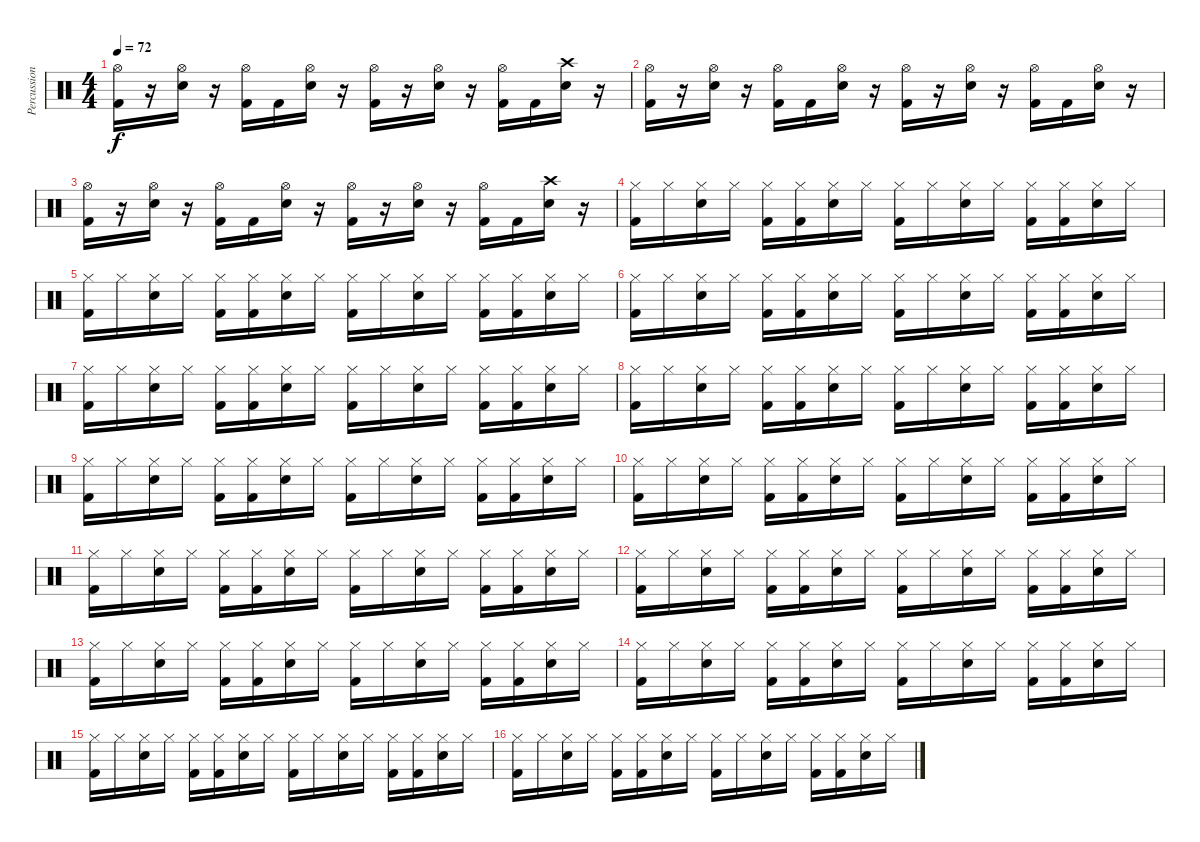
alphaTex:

\track ("Percussion" "Percussion") {instrument percussion}
\staff {score}
\articulation defaults
\ts (4 4)
\tempo 72
\clef neutral
\ks c
("Hi-Hat (open)" "Kick (hit) 2").16{dy f} r.16 ("Hi-Hat (open)" "Snare (hit) 2").16 r.16 ("Hi-Hat (open)" "Kick (hit) 2").16 "Kick (hit) 2".16 ("Hi-Hat (open)" "Snare (hit) 2").16 r.16 ("Hi-Hat (open)" "Kick (hit) 2").16 r.16 ("Hi-Hat (open)" "Snare (hit) 2").16 r.16 ("Hi-Hat (open)" "Kick (hit) 2").16 "Kick (hit) 2".16 ("Crash high (hit)" "Snare (hit) 2").16 r.16 |
("Hi-Hat (open)" "Kick (hit) 2").16 r.16 ("Hi-Hat (open)" "Snare (hit) 2").16 r.16 ("Hi-Hat (open)" "Kick (hit) 2").16 "Kick (hit) 2".16 ("Hi-Hat (open)" "Snare (hit) 2").16 r.16 ("Hi-Hat (open)" "Kick (hit) 2").16 r.16 ("Hi-Hat (open)" "Snare (hit) 2").16 r.16 ("Hi-Hat (open)" "Kick (hit) 2").16 "Kick (hit) 2".16 ("Hi-Hat (open)" "Snare (hit) 2").16 r.16 |
("Hi-Hat (open)" "Kick (hit) 2").16 r.16 ("Hi-Hat (open)" "Snare (hit) 2").16 r.16 ("Hi-Hat (open)" "Kick (hit) 2").16 "Kick (hit) 2".16 ("Hi-Hat (open)" "Snare (hit) 2").16 r.16 ("Hi-Hat (open)" "Kick (hit) 2").16 r.16 ("Hi-Hat (open)" "Snare (hit) 2").16 r.16 ("Hi-Hat (open)" "Kick (hit) 2").16 "Kick (hit) 2".16 ("Crash high (hit)" "Snare (hit) 2").16 r.16 |
("Hi-Hat (closed)" "Kick (hit) 2").16 "Hi-Hat (closed)".16 ("Hi-Hat (closed)" "Snare (hit) 2").16 "Hi-Hat (closed)".16 ("Hi-Hat (closed)" "Kick (hit) 2").16 ("Hi-Hat (closed)" "Kick (hit) 2").16 ("Hi-Hat (closed)" "Snare (hit) 2").16 "Hi-Hat (closed)".16 ("Hi-Hat (closed)" "Kick (hit) 2").16 "Hi-Hat (closed)".16 ("Hi-Hat (closed)" "Snare (hit) 2").16 "Hi-Hat (closed)".16 ("Hi-Hat (closed)" "Kick (hit) 2").16 ("Hi-Hat (closed)" "Kick (hit) 2").16 ("Hi-Hat (closed)" "Snare (hit) 2").16 "Hi-Hat (closed)".16 |
("Hi-Hat (closed)" "Kick (hit) 2").16 "Hi-Hat (closed)".16 ("Hi-Hat (closed)" "Snare (hit) 2").16 "Hi-Hat (closed)".16 ("Hi-Hat (closed)" "Kick (hit) 2").16 ("Hi-Hat (closed)" "Kick (hit) 2").16 ("Hi-Hat (closed)" "Snare (hit) 2").16 "Hi-Hat (closed)".16 ("Hi-Hat (closed)" "Kick (hit) 2").16 "Hi-Hat (closed)".16 ("Hi-Hat (closed)" "Snare (hit) 2").16 "Hi-Hat (closed)".16 ("Hi-Hat (closed)" "Kick (hit) 2").16 ("Hi-Hat (closed)" "Kick (hit) 2").16 ("Hi-Hat (closed)" "Snare (hit) 2").16 "Hi-Hat (closed)".16 |
("Hi-Hat (closed)" "Kick (hit) 2").16 "Hi-Hat (closed)".16 ("Hi-Hat (closed)" "Snare (hit) 2").16 "Hi-Hat (closed)".16 ("Hi-Hat (closed)" "Kick (hit) 2").16 ("Hi-Hat (closed)" "Kick (hit) 2").16 ("Hi-Hat (closed)" "Snare (hit) 2").16 "Hi-Hat (closed)".16 ("Hi-Hat (closed)" "Kick (hit) 2").16 "Hi-Hat (closed)".16 ("Hi-Hat (closed)" "Snare (hit) 2").16 "Hi-Hat (closed)".16 ("Hi-Hat (closed)" "Kick (hit) 2").16 ("Hi-Hat (closed)" "Kick (hit) 2").16 ("Hi-Hat (closed)" "Snare (hit) 2").16 "Hi-Hat (closed)".16 |
("Hi-Hat (closed)" "Kick (hit) 2").16 "Hi-Hat (closed)".16 ("Hi-Hat (closed)" "Snare (hit) 2").16 "Hi-Hat (closed)".16 ("Hi-Hat (closed)" "Kick (hit) 2").16 ("Hi-Hat (closed)" "Kick (hit) 2").16 ("Hi-Hat (closed)" "Snare (hit) 2").16 "Hi-Hat (closed)".16 ("Hi-Hat (closed)" "Kick (hit) 2").16 "Hi-Hat (closed)".16 ("Hi-Hat (closed)" "Snare (hit) 2").16 "Hi-Hat (closed)".16 ("Hi-Hat (closed)" "Kick (hit) 2").16 ("Hi-Hat (closed)" "Kick (hit) 2").16 ("Hi-Hat (closed)" "Snare (hit) 2").16 "Hi-Hat (closed)".16 |
("Hi-Hat (closed)" "Kick (hit) 2").16 "Hi-Hat (closed)".16 ("Hi-Hat (closed)" "Snare (hit) 2").16 "Hi-Hat (closed)".16 ("Hi-Hat (closed)" "Kick (hit) 2").16 ("Hi-Hat (closed)" "Kick (hit) 2").16 ("Hi-Hat (closed)" "Snare (hit) 2").16 "Hi-Hat (closed)".16 ("Hi-Hat (closed)" "Kick (hit) 2").16 "Hi-Hat (closed)".16 ("Hi-Hat (closed)" "Snare (hit) 2").16 "Hi-Hat (closed)".16 ("Hi-Hat (closed)" "Kick (hit) 2").16 ("Hi-Hat (closed)" "Kick (hit) 2").16 ("Hi-Hat (closed)" "Snare (hit) 2").16 "Hi-Hat (closed)".16 |
("Hi-Hat (closed)" "Kick (hit) 2").16 "Hi-Hat (closed)".16 ("Hi-Hat (closed)" "Snare (hit) 2").16 "Hi-Hat (closed)".16 ("Hi-Hat (closed)" "Kick (hit) 2").16 ("Hi-Hat (closed)" "Kick (hit) 2").16 ("Hi-Hat (closed)" "Snare (hit) 2").16 "Hi-Hat (closed)".16 ("Hi-Hat (closed)" "Kick (hit) 2").16 "Hi-Hat (closed)".16 ("Hi-Hat (closed)" "Snare (hit) 2").16 "Hi-Hat (closed)".16 ("Hi-Hat (closed)" "Kick (hit) 2").16 ("Hi-Hat (closed)" "Kick (hit) 2").16 ("Hi-Hat (closed)" "Snare (hit) 2").16 "Hi-Hat (closed)".16 |
("Hi-Hat (closed)" "Kick (hit) 2").16 "Hi-Hat (closed)".16 ("Hi-Hat (closed)" "Snare (hit) 2").16 "Hi-Hat (closed)".16 ("Hi-Hat (closed)" "Kick (hit) 2").16 ("Hi-Hat (closed)" "Kick (hit) 2").16 ("Hi-Hat (closed)" "Snare (hit) 2").16 "Hi-Hat (closed)".16 ("Hi-Hat (closed)" "Kick (hit) 2").16 "Hi-Hat (closed)".16 ("Hi-Hat (closed)" "Snare (hit) 2").16 "Hi-Hat (closed)".16 ("Hi-Hat (closed)" "Kick (hit) 2").16 ("Hi-Hat (closed)" "Kick (hit) 2").16 ("Hi-Hat (closed)" "Snare (hit) 2").16 "Hi-Hat (closed)".16 |
("Hi-Hat (closed)" "Kick (hit) 2").16 "Hi-Hat (closed)".16 ("Hi-Hat (closed)" "Snare (hit) 2").16 "Hi-Hat (closed)".16 ("Hi-Hat (closed)" "Kick (hit) 2").16 ("Hi-Hat (closed)" "Kick (hit) 2").16 ("Hi-Hat (closed)" "Snare (hit) 2").16 "Hi-Hat (closed)".16 ("Hi-Hat (closed)" "Kick (hit) 2").16 "Hi-Hat (closed)".16 ("Hi-Hat (closed)" "Snare (hit) 2").16 "Hi-Hat (closed)".16 ("Hi-Hat (closed)" "Kick (hit) 2").16 ("Hi-Hat (closed)" "Kick (hit) 2").16 ("Hi-Hat (closed)" "Snare (hit) 2").16 "Hi-Hat (closed)".16 |
("Hi-Hat (closed)" "Kick (hit) 2").16 "Hi-Hat (closed)".16 ("Hi-Hat (closed)" "Snare (hit) 2").16 "Hi-Hat (closed)".16 ("Hi-Hat (closed)" "Kick (hit) 2").16 ("Hi-Hat (closed)" "Kick (hit) 2").16 ("Hi-Hat (closed)" "Snare (hit) 2").16 "Hi-Hat (closed)".16 ("Hi-Hat (closed)" "Kick (hit) 2").16 "Hi-Hat (closed)".16 ("Hi-Hat (closed)" "Snare (hit) 2").16 "Hi-Hat (closed)".16 ("Hi-Hat (closed)" "Kick (hit) 2").16 ("Hi-Hat (closed)" "Kick (hit) 2").16 ("Hi-Hat (closed)" "Snare (hit) 2").16 "Hi-Hat (closed)".16 |
("Hi-Hat (closed)" "Kick (hit) 2").16 "Hi-Hat (closed)".16 ("Hi-Hat (closed)" "Snare (hit) 2").16 "Hi-Hat (closed)".16 ("Hi-Hat (closed)" "Kick (hit) 2").16 ("Hi-Hat (closed)" "Kick (hit) 2").16 ("Hi-Hat (closed)" "Snare (hit) 2").16 "Hi-Hat (closed)".16 ("Hi-Hat (closed)" "Kick (hit) 2").16 "Hi-Hat (closed)".16 ("Hi-Hat (closed)" "Snare (hit) 2").16 "Hi-Hat (closed)".16 ("Hi-Hat (closed)" "Kick (hit) 2").16 ("Hi-Hat (closed)" "Kick (hit) 2").16 ("Hi-Hat (closed)" "Snare (hit) 2").16 "Hi-Hat (closed)".16 |
("Hi-Hat (closed)" "Kick (hit) 2").16 "Hi-Hat (closed)".16 ("Hi-Hat (closed)" "Snare (hit) 2").16 "Hi-Hat (closed)".16 ("Hi-Hat (closed)" "Kick (hit) 2").16 ("Hi-Hat (closed)" "Kick (hit) 2").16 ("Hi-Hat (closed)" "Snare (hit) 2").16 "Hi-Hat (closed)".16 ("Hi-Hat (closed)" "Kick (hit) 2").16 "Hi-Hat (closed)".16 ("Hi-Hat (closed)" "Snare (hit) 2").16 "Hi-Hat (closed)".16 ("Hi-Hat (closed)" "Kick (hit) 2").16 ("Hi-Hat (closed)" "Kick (hit) 2").16 ("Hi-Hat (closed)" "Snare (hit) 2").16 "Hi-Hat (closed)".16 |
("Hi-Hat (closed)" "Kick (hit) 2").16 "Hi-Hat (closed)".16 ("Hi-Hat (closed)" "Snare (hit) 2").16 "Hi-Hat (closed)".16 ("Hi-Hat (closed)" "Kick (hit) 2").16 ("Hi-Hat (closed)" "Kick (hit) 2").16 ("Hi-Hat (closed)" "Snare (hit) 2").16 "Hi-Hat (closed)".16 ("Hi-Hat (closed)" "Kick (hit) 2").16 "Hi-Hat (closed)".16 ("Hi-Hat (closed)" "Snare (hit) 2").16 "Hi-Hat (closed)".16 ("Hi-Hat (closed)" "Kick (hit) 2").16 ("Hi-Hat (closed)" "Kick (hit) 2").16 ("Hi-Hat (closed)" "Snare (hit) 2").16 "Hi-Hat (closed)".16 |
("Hi-Hat (closed)" "Kick (hit) 2").16 "Hi-Hat (closed)".16 ("Hi-Hat (closed)" "Snare (hit) 2").16 "Hi-Hat (closed)".16 ("Hi-Hat (closed)" "Kick (hit) 2").16 ("Hi-Hat (closed)" "Kick (hit) 2").16 ("Hi-Hat (closed)" "Snare (hit) 2").16 "Hi-Hat (closed)".16 ("Hi-Hat (closed)" "Kick (hit) 2").16 "Hi-Hat (closed)".16 ("Hi-Hat (closed)" "Snare (hit) 2").16 "Hi-Hat (closed)".16 ("Hi-Hat (closed)" "Kick (hit) 2").16 ("Hi-Hat (closed)" "Kick (hit) 2").16 ("Hi-Hat (closed)" "Snare (hit) 2").16 "Hi-Hat (closed)".16
